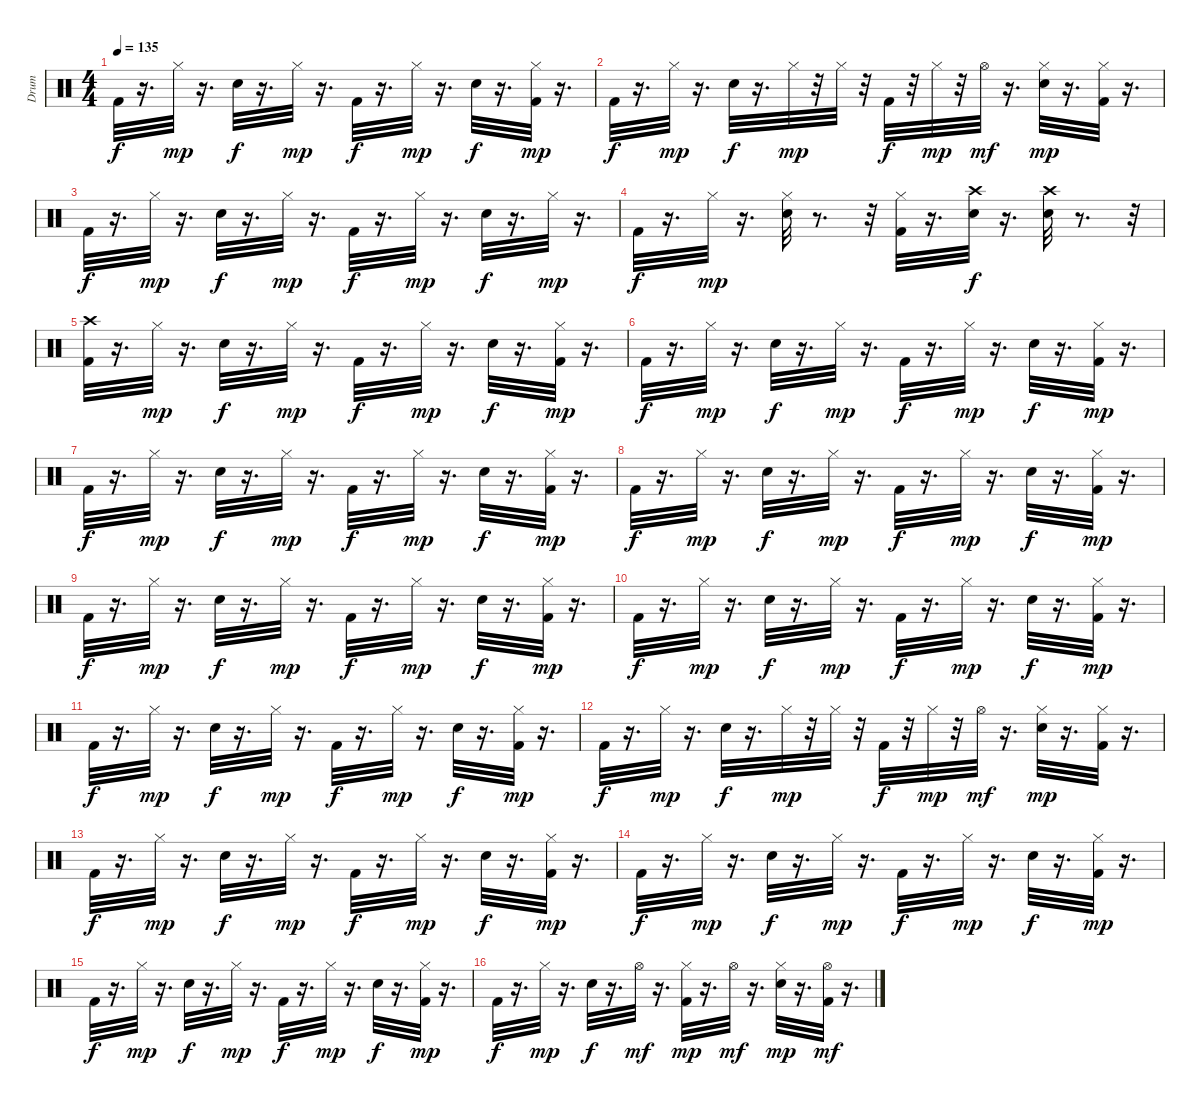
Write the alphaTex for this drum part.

\track ("Drum" "Drum") {instrument percussion}
\staff {score}
\articulation defaults
\ts (4 4)
\tempo 135
\clef neutral
\ks c "Kick (hit) 2".32{dy f}
r.16{d} "Hi-Hat (closed)".32{dy mp} r.16{d} "Electric Snare (hit)".32{dy f} r.16{d} "Hi-Hat (closed)".32{dy mp} r.16{d} "Kick (hit) 2".32{dy f} r.16{d} "Hi-Hat (closed)".32{dy mp} r.16{d} "Electric Snare (hit)".32{dy f} r.16{d} ("Hi-Hat (closed)" "Kick (hit) 2").32{dy mp} r.16{d} |
"Kick (hit) 2".32{dy f} r.16{d} "Hi-Hat (closed)".32{dy mp} r.16{d} "Electric Snare (hit)".32{dy f} r.16{d} "Hi-Hat (closed)".32{dy mp} r.32 "Hi-Hat (closed)".32 r.32 "Kick (hit) 2".32{dy f} r.32 "Hi-Hat (closed)".32{dy mp} r.32 "Hi-Hat (open)".32{dy mf} r.16{d} ("Hi-Hat (closed)" "Electric Snare (hit)").32{dy mp} r.16{d} ("Kick (hit) 2" "Hi-Hat (closed)").32 r.16{d} |
"Kick (hit) 2".32{dy f} r.16{d} "Hi-Hat (closed)".32{dy mp} r.16{d} "Electric Snare (hit)".32{dy f} r.16{d} "Hi-Hat (closed)".32{dy mp} r.16{d} "Kick (hit) 2".32{dy f} r.16{d} "Hi-Hat (closed)".32{dy mp} r.16{d} "Electric Snare (hit)".32{dy f} r.16{d} "Hi-Hat (closed)".32{dy mp} r.16{d} |
"Kick (hit) 2".32{dy f} r.16{d} "Hi-Hat (closed)".32{dy mp} r.16{d} ("Electric Snare (hit)" "Hi-Hat (closed)").32 r.8{d} r.32 ("Kick (hit) 2" "Hi-Hat (closed)").32 r.16{d} ("Crash high (hit)" "Electric Snare (hit)").32{dy f} r.16{d} ("Crash high (hit)" "Electric Snare (hit)").32 r.8{d} r.32 |
("Kick (hit) 2" "Crash high (hit)").32 r.16{d} "Hi-Hat (closed)".32{dy mp} r.16{d} "Electric Snare (hit)".32{dy f} r.16{d} "Hi-Hat (closed)".32{dy mp} r.16{d} "Kick (hit) 2".32{dy f} r.16{d} "Hi-Hat (closed)".32{dy mp} r.16{d} "Electric Snare (hit)".32{dy f} r.16{d} ("Kick (hit) 2" "Hi-Hat (closed)").32{dy mp} r.16{d} |
"Kick (hit) 2".32{dy f} r.16{d} "Hi-Hat (closed)".32{dy mp} r.16{d} "Electric Snare (hit)".32{dy f} r.16{d} "Hi-Hat (closed)".32{dy mp} r.16{d} "Kick (hit) 2".32{dy f} r.16{d} "Hi-Hat (closed)".32{dy mp} r.16{d} "Electric Snare (hit)".32{dy f} r.16{d} ("Hi-Hat (closed)" "Kick (hit) 2").32{dy mp} r.16{d} |
"Kick (hit) 2".32{dy f} r.16{d} "Hi-Hat (closed)".32{dy mp} r.16{d} "Electric Snare (hit)".32{dy f} r.16{d} "Hi-Hat (closed)".32{dy mp} r.16{d} "Kick (hit) 2".32{dy f} r.16{d} "Hi-Hat (closed)".32{dy mp} r.16{d} "Electric Snare (hit)".32{dy f} r.16{d} ("Hi-Hat (closed)" "Kick (hit) 2").32{dy mp} r.16{d} |
"Kick (hit) 2".32{dy f} r.16{d} "Hi-Hat (closed)".32{dy mp} r.16{d} "Electric Snare (hit)".32{dy f} r.16{d} "Hi-Hat (closed)".32{dy mp} r.16{d} "Kick (hit) 2".32{dy f} r.16{d} "Hi-Hat (closed)".32{dy mp} r.16{d} "Electric Snare (hit)".32{dy f} r.16{d} ("Hi-Hat (closed)" "Kick (hit) 2").32{dy mp} r.16{d} |
"Kick (hit) 2".32{dy f} r.16{d} "Hi-Hat (closed)".32{dy mp} r.16{d} "Electric Snare (hit)".32{dy f} r.16{d} "Hi-Hat (closed)".32{dy mp} r.16{d} "Kick (hit) 2".32{dy f} r.16{d} "Hi-Hat (closed)".32{dy mp} r.16{d} "Electric Snare (hit)".32{dy f} r.16{d} ("Hi-Hat (closed)" "Kick (hit) 2").32{dy mp} r.16{d} |
"Kick (hit) 2".32{dy f} r.16{d} "Hi-Hat (closed)".32{dy mp} r.16{d} "Electric Snare (hit)".32{dy f} r.16{d} "Hi-Hat (closed)".32{dy mp} r.16{d} "Kick (hit) 2".32{dy f} r.16{d} "Hi-Hat (closed)".32{dy mp} r.16{d} "Electric Snare (hit)".32{dy f} r.16{d} ("Hi-Hat (closed)" "Kick (hit) 2").32{dy mp} r.16{d} |
"Kick (hit) 2".32{dy f} r.16{d} "Hi-Hat (closed)".32{dy mp} r.16{d} "Electric Snare (hit)".32{dy f} r.16{d} "Hi-Hat (closed)".32{dy mp} r.16{d} "Kick (hit) 2".32{dy f} r.16{d} "Hi-Hat (closed)".32{dy mp} r.16{d} "Electric Snare (hit)".32{dy f} r.16{d} ("Hi-Hat (closed)" "Kick (hit) 2").32{dy mp} r.16{d} |
"Kick (hit) 2".32{dy f} r.16{d} "Hi-Hat (closed)".32{dy mp} r.16{d} "Electric Snare (hit)".32{dy f} r.16{d} "Hi-Hat (closed)".32{dy mp} r.32 "Hi-Hat (closed)".32 r.32 "Kick (hit) 2".32{dy f} r.32 "Hi-Hat (closed)".32{dy mp} r.32 "Hi-Hat (open)".32{dy mf} r.16{d} ("Hi-Hat (closed)" "Electric Snare (hit)").32{dy mp} r.16{d} ("Kick (hit) 2" "Hi-Hat (closed)").32 r.16{d} |
"Kick (hit) 2".32{dy f} r.16{d} "Hi-Hat (closed)".32{dy mp} r.16{d} "Electric Snare (hit)".32{dy f} r.16{d} "Hi-Hat (closed)".32{dy mp} r.16{d} "Kick (hit) 2".32{dy f} r.16{d} "Hi-Hat (closed)".32{dy mp} r.16{d} "Electric Snare (hit)".32{dy f} r.16{d} ("Hi-Hat (closed)" "Kick (hit) 2").32{dy mp} r.16{d} |
"Kick (hit) 2".32{dy f} r.16{d} "Hi-Hat (closed)".32{dy mp} r.16{d} "Electric Snare (hit)".32{dy f} r.16{d} "Hi-Hat (closed)".32{dy mp} r.16{d} "Kick (hit) 2".32{dy f} r.16{d} "Hi-Hat (closed)".32{dy mp} r.16{d} "Electric Snare (hit)".32{dy f} r.16{d} ("Hi-Hat (closed)" "Kick (hit) 2").32{dy mp} r.16{d} |
"Kick (hit) 2".32{dy f} r.16{d} "Hi-Hat (closed)".32{dy mp} r.16{d} "Electric Snare (hit)".32{dy f} r.16{d} "Hi-Hat (closed)".32{dy mp} r.16{d} "Kick (hit) 2".32{dy f} r.16{d} "Hi-Hat (closed)".32{dy mp} r.16{d} "Electric Snare (hit)".32{dy f} r.16{d} ("Hi-Hat (closed)" "Kick (hit) 2").32{dy mp} r.16{d} |
"Kick (hit) 2".32{dy f} r.16{d} "Hi-Hat (closed)".32{dy mp} r.16{d} "Electric Snare (hit)".32{dy f} r.16{d} "Hi-Hat (open)".32{dy mf} r.16{d} ("Kick (hit) 2" "Hi-Hat (closed)").32{dy mp} r.16{d} "Hi-Hat (open)".32{dy mf} r.16{d} ("Hi-Hat (closed)" "Electric Snare (hit)").32{dy mp} r.16{d} ("Hi-Hat (open)" "Kick (hit) 2").32{dy mf} r.16{d}
